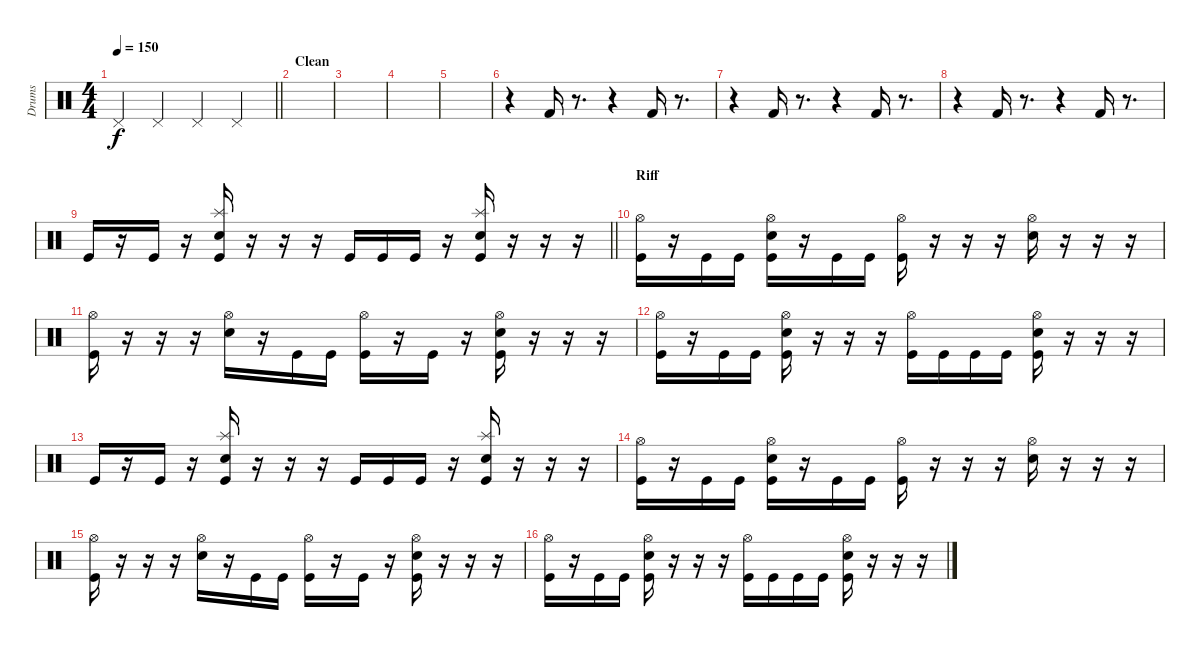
\track ("Drums" "Drums") {instrument percussion}
\staff
\articulation defaults
\ts (4 4)
\tempo 150
\clef neutral
\barLineRight lightlight
\ks c "Pedal Hi-Hat (hit)".4{dy f} "Pedal Hi-Hat (hit)".4 "Pedal Hi-Hat (hit)".4 "Pedal Hi-Hat (hit)".4
|
\section ("" "Clean")
|
|
|
|
r.4 "Kick (hit) 2".16 r.8{d} r.4 "Kick (hit) 2".16 r.8{d} |
r.4 "Kick (hit) 2".16 r.8{d} r.4 "Kick (hit) 2".16 r.8{d} |
r.4 "Kick (hit) 2".16 r.8{d} r.4 "Kick (hit) 2".16 r.8{d} |
\barLineRight lightlight "Kick (hit)".16
r.16 "Kick (hit)".16 r.16 ("Splash (hit)" "Snare (hit) 2" "Kick (hit)").16 r.16 r.16 r.16 "Kick (hit)".16 "Kick (hit)".16 "Kick (hit)".16 r.16 ("Splash (hit)" "Snare (hit) 2" "Kick (hit)").16 r.16 r.16 r.16 |
\section ("" "Riff")
("Hi-Hat (open)" "Kick (hit)").16 r.16 "Kick (hit)".16 "Kick (hit)".16 ("Hi-Hat (open)" "Snare (hit) 2" "Kick (hit)").16 r.16 "Kick (hit)".16 "Kick (hit)".16 ("Hi-Hat (open)" "Kick (hit)").16 r.16 r.16 r.16 ("Hi-Hat (open)" "Snare (hit) 2").16 r.16 r.16 r.16 |
("Hi-Hat (open)" "Kick (hit)").16 r.16 r.16 r.16 ("Hi-Hat (open)" "Snare (hit) 2").16 r.16 "Kick (hit)".16 "Kick (hit)".16 ("Hi-Hat (open)" "Kick (hit)").16 r.16 "Kick (hit)".16 r.16 ("Hi-Hat (open)" "Snare (hit) 2" "Kick (hit)").16 r.16 r.16 r.16 |
("Hi-Hat (open)" "Kick (hit)").16 r.16 "Kick (hit)".16 "Kick (hit)".16 ("Hi-Hat (open)" "Snare (hit) 2" "Kick (hit)").16 r.16 r.16 r.16 ("Hi-Hat (open)" "Kick (hit)").16 "Kick (hit)".16 "Kick (hit)".16 "Kick (hit)".16 ("Hi-Hat (open)" "Snare (hit) 2" "Kick (hit)").16 r.16 r.16 r.16 |
"Kick (hit)".16 r.16 "Kick (hit)".16 r.16 ("Splash (hit)" "Snare (hit) 2" "Kick (hit)").16 r.16 r.16 r.16 "Kick (hit)".16 "Kick (hit)".16 "Kick (hit)".16 r.16 ("Splash (hit)" "Snare (hit) 2" "Kick (hit)").16 r.16 r.16 r.16 |
("Hi-Hat (open)" "Kick (hit)").16 r.16 "Kick (hit)".16 "Kick (hit)".16 ("Hi-Hat (open)" "Snare (hit) 2" "Kick (hit)").16 r.16 "Kick (hit)".16 "Kick (hit)".16 ("Hi-Hat (open)" "Kick (hit)").16 r.16 r.16 r.16 ("Hi-Hat (open)" "Snare (hit) 2").16 r.16 r.16 r.16 |
("Hi-Hat (open)" "Kick (hit)").16 r.16 r.16 r.16 ("Hi-Hat (open)" "Snare (hit) 2").16 r.16 "Kick (hit)".16 "Kick (hit)".16 ("Hi-Hat (open)" "Kick (hit)").16 r.16 "Kick (hit)".16 r.16 ("Hi-Hat (open)" "Snare (hit) 2" "Kick (hit)").16 r.16 r.16 r.16 |
("Hi-Hat (open)" "Kick (hit)").16 r.16 "Kick (hit)".16 "Kick (hit)".16 ("Hi-Hat (open)" "Snare (hit) 2" "Kick (hit)").16 r.16 r.16 r.16 ("Hi-Hat (open)" "Kick (hit)").16 "Kick (hit)".16 "Kick (hit)".16 "Kick (hit)".16 ("Hi-Hat (open)" "Snare (hit) 2" "Kick (hit)").16 r.16 r.16 r.16
